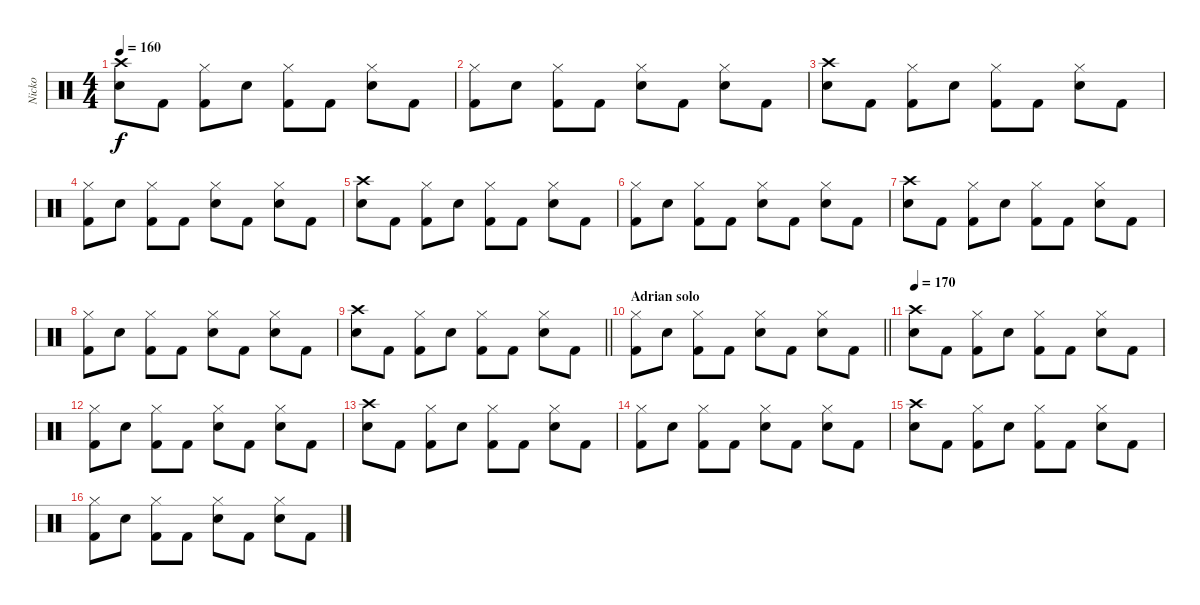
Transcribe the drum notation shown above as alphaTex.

\track ("Nicko" "Nicko") {instrument percussion}
\staff {score}
\articulation defaults
\ts (4 4)
\tempo 160
\clef neutral
\ks c
("Crash high (hit)" "Snare (hit) 2").8{dy f} "Kick (hit) 2".8 ("Hi-Hat (closed)" "Kick (hit) 2").8 "Snare (hit) 2".8 ("Hi-Hat (closed)" "Kick (hit) 2").8 "Kick (hit) 2".8 ("Hi-Hat (closed)" "Snare (hit) 2").8 "Kick (hit) 2".8 |
("Hi-Hat (closed)" "Kick (hit) 2").8 "Snare (hit) 2".8 ("Hi-Hat (closed)" "Kick (hit) 2").8 "Kick (hit) 2".8 ("Hi-Hat (closed)" "Snare (hit) 2").8 "Kick (hit) 2".8 ("Hi-Hat (closed)" "Snare (hit) 2").8 "Kick (hit) 2".8 |
("Crash high (hit)" "Snare (hit) 2").8 "Kick (hit) 2".8 ("Hi-Hat (closed)" "Kick (hit) 2").8 "Snare (hit) 2".8 ("Hi-Hat (closed)" "Kick (hit) 2").8 "Kick (hit) 2".8 ("Hi-Hat (closed)" "Snare (hit) 2").8 "Kick (hit) 2".8 |
("Hi-Hat (closed)" "Kick (hit) 2").8 "Snare (hit) 2".8 ("Hi-Hat (closed)" "Kick (hit) 2").8 "Kick (hit) 2".8 ("Hi-Hat (closed)" "Snare (hit) 2").8 "Kick (hit) 2".8 ("Hi-Hat (closed)" "Snare (hit) 2").8 "Kick (hit) 2".8 |
("Crash high (hit)" "Snare (hit) 2").8 "Kick (hit) 2".8 ("Hi-Hat (closed)" "Kick (hit) 2").8 "Snare (hit) 2".8 ("Hi-Hat (closed)" "Kick (hit) 2").8 "Kick (hit) 2".8 ("Hi-Hat (closed)" "Snare (hit) 2").8 "Kick (hit) 2".8 |
("Hi-Hat (closed)" "Kick (hit) 2").8 "Snare (hit) 2".8 ("Hi-Hat (closed)" "Kick (hit) 2").8 "Kick (hit) 2".8 ("Hi-Hat (closed)" "Snare (hit) 2").8 "Kick (hit) 2".8 ("Hi-Hat (closed)" "Snare (hit) 2").8 "Kick (hit) 2".8 |
("Crash high (hit)" "Snare (hit) 2").8 "Kick (hit) 2".8 ("Hi-Hat (closed)" "Kick (hit) 2").8 "Snare (hit) 2".8 ("Hi-Hat (closed)" "Kick (hit) 2").8 "Kick (hit) 2".8 ("Hi-Hat (closed)" "Snare (hit) 2").8 "Kick (hit) 2".8 |
("Hi-Hat (closed)" "Kick (hit) 2").8 "Snare (hit) 2".8 ("Hi-Hat (closed)" "Kick (hit) 2").8 "Kick (hit) 2".8 ("Hi-Hat (closed)" "Snare (hit) 2").8 "Kick (hit) 2".8 ("Hi-Hat (closed)" "Snare (hit) 2").8 "Kick (hit) 2".8 |
\barLineRight lightlight
("Crash high (hit)" "Snare (hit) 2").8 "Kick (hit) 2".8 ("Hi-Hat (closed)" "Kick (hit) 2").8 "Snare (hit) 2".8 ("Hi-Hat (closed)" "Kick (hit) 2").8 "Kick (hit) 2".8 ("Hi-Hat (closed)" "Snare (hit) 2").8 "Kick (hit) 2".8 |
\section ("" "Adrian solo")
\barLineRight lightlight
("Hi-Hat (closed)" "Kick (hit) 2").8 "Snare (hit) 2".8 ("Hi-Hat (closed)" "Kick (hit) 2").8 "Kick (hit) 2".8 ("Hi-Hat (closed)" "Snare (hit) 2").8 "Kick (hit) 2".8 ("Hi-Hat (closed)" "Snare (hit) 2").8 "Kick (hit) 2".8 |
\tempo 170
("Crash high (hit)" "Snare (hit) 2").8 "Kick (hit) 2".8 ("Hi-Hat (closed)" "Kick (hit) 2").8 "Snare (hit) 2".8 ("Hi-Hat (closed)" "Kick (hit) 2").8 "Kick (hit) 2".8 ("Hi-Hat (closed)" "Snare (hit) 2").8 "Kick (hit) 2".8 |
("Hi-Hat (closed)" "Kick (hit) 2").8 "Snare (hit) 2".8 ("Hi-Hat (closed)" "Kick (hit) 2").8 "Kick (hit) 2".8 ("Hi-Hat (closed)" "Snare (hit) 2").8 "Kick (hit) 2".8 ("Hi-Hat (closed)" "Snare (hit) 2").8 "Kick (hit) 2".8 |
("Crash high (hit)" "Snare (hit) 2").8 "Kick (hit) 2".8 ("Hi-Hat (closed)" "Kick (hit) 2").8 "Snare (hit) 2".8 ("Hi-Hat (closed)" "Kick (hit) 2").8 "Kick (hit) 2".8 ("Hi-Hat (closed)" "Snare (hit) 2").8 "Kick (hit) 2".8 |
("Hi-Hat (closed)" "Kick (hit) 2").8 "Snare (hit) 2".8 ("Hi-Hat (closed)" "Kick (hit) 2").8 "Kick (hit) 2".8 ("Hi-Hat (closed)" "Snare (hit) 2").8 "Kick (hit) 2".8 ("Hi-Hat (closed)" "Snare (hit) 2").8 "Kick (hit) 2".8 |
("Crash high (hit)" "Snare (hit) 2").8 "Kick (hit) 2".8 ("Hi-Hat (closed)" "Kick (hit) 2").8 "Snare (hit) 2".8 ("Hi-Hat (closed)" "Kick (hit) 2").8 "Kick (hit) 2".8 ("Hi-Hat (closed)" "Snare (hit) 2").8 "Kick (hit) 2".8 |
("Hi-Hat (closed)" "Kick (hit) 2").8 "Snare (hit) 2".8 ("Hi-Hat (closed)" "Kick (hit) 2").8 "Kick (hit) 2".8 ("Hi-Hat (closed)" "Snare (hit) 2").8 "Kick (hit) 2".8 ("Hi-Hat (closed)" "Snare (hit) 2").8 "Kick (hit) 2".8
